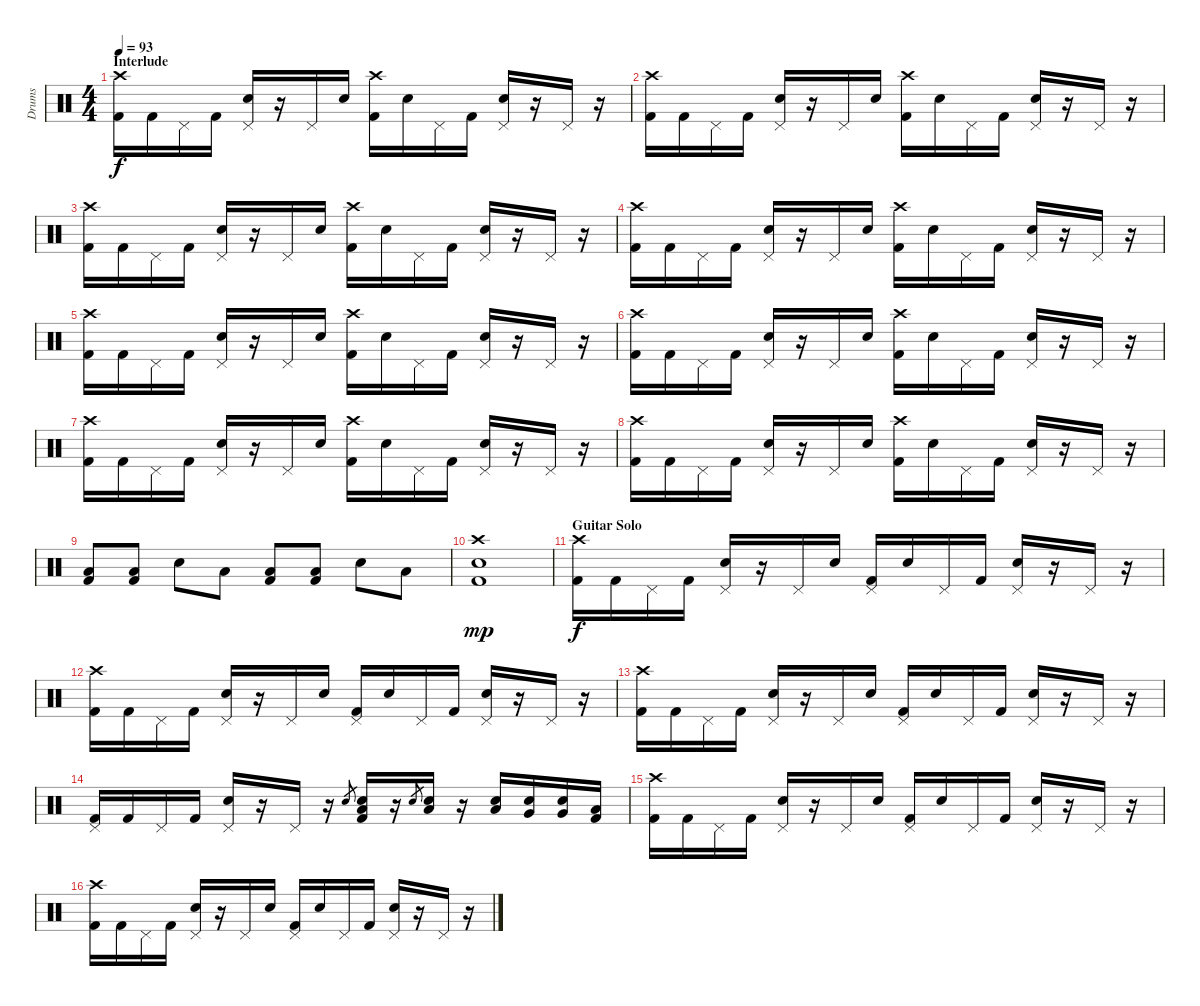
\track ("Drums" "Drums") {instrument percussion}
\staff {score}
\articulation defaults
\ts (4 4)
\section ("" "Interlude")
\tempo 93
\clef neutral
\ks c
("Crash high (hit)" "Kick (hit) 2").16{dy f} "Kick (hit) 2".16 "Pedal Hi-Hat (hit)".16 "Kick (hit) 2".16 ("Pedal Hi-Hat (hit)" "Electric Snare (hit)").16 r.16 "Pedal Hi-Hat (hit)".16 "Electric Snare (hit)".16 ("Crash high (hit)" "Kick (hit) 2").16 "Electric Snare (hit)".16 "Pedal Hi-Hat (hit)".16 "Kick (hit) 2".16 ("Pedal Hi-Hat (hit)" "Electric Snare (hit)").16 r.16 "Pedal Hi-Hat (hit)".16 r.16 |
("Crash high (hit)" "Kick (hit) 2").16 "Kick (hit) 2".16 "Pedal Hi-Hat (hit)".16 "Kick (hit) 2".16 ("Pedal Hi-Hat (hit)" "Electric Snare (hit)").16 r.16 "Pedal Hi-Hat (hit)".16 "Electric Snare (hit)".16 ("Crash high (hit)" "Kick (hit) 2").16 "Electric Snare (hit)".16 "Pedal Hi-Hat (hit)".16 "Kick (hit) 2".16 ("Pedal Hi-Hat (hit)" "Electric Snare (hit)").16 r.16 "Pedal Hi-Hat (hit)".16 r.16 |
("Crash high (hit)" "Kick (hit) 2").16 "Kick (hit) 2".16 "Pedal Hi-Hat (hit)".16 "Kick (hit) 2".16 ("Pedal Hi-Hat (hit)" "Electric Snare (hit)").16 r.16 "Pedal Hi-Hat (hit)".16 "Electric Snare (hit)".16 ("Crash high (hit)" "Kick (hit) 2").16 "Electric Snare (hit)".16 "Pedal Hi-Hat (hit)".16 "Kick (hit) 2".16 ("Pedal Hi-Hat (hit)" "Electric Snare (hit)").16 r.16 "Pedal Hi-Hat (hit)".16 r.16 |
("Crash high (hit)" "Kick (hit) 2").16 "Kick (hit) 2".16 "Pedal Hi-Hat (hit)".16 "Kick (hit) 2".16 ("Pedal Hi-Hat (hit)" "Electric Snare (hit)").16 r.16 "Pedal Hi-Hat (hit)".16 "Electric Snare (hit)".16 ("Crash high (hit)" "Kick (hit) 2").16 "Electric Snare (hit)".16 "Pedal Hi-Hat (hit)".16 "Kick (hit) 2".16 ("Pedal Hi-Hat (hit)" "Electric Snare (hit)").16 r.16 "Pedal Hi-Hat (hit)".16 r.16 |
("Crash high (hit)" "Kick (hit) 2").16 "Kick (hit) 2".16 "Pedal Hi-Hat (hit)".16 "Kick (hit) 2".16 ("Pedal Hi-Hat (hit)" "Electric Snare (hit)").16 r.16 "Pedal Hi-Hat (hit)".16 "Electric Snare (hit)".16 ("Crash high (hit)" "Kick (hit) 2").16 "Electric Snare (hit)".16 "Pedal Hi-Hat (hit)".16 "Kick (hit) 2".16 ("Pedal Hi-Hat (hit)" "Electric Snare (hit)").16 r.16 "Pedal Hi-Hat (hit)".16 r.16 |
("Crash high (hit)" "Kick (hit) 2").16 "Kick (hit) 2".16 "Pedal Hi-Hat (hit)".16 "Kick (hit) 2".16 ("Pedal Hi-Hat (hit)" "Electric Snare (hit)").16 r.16 "Pedal Hi-Hat (hit)".16 "Electric Snare (hit)".16 ("Crash high (hit)" "Kick (hit) 2").16 "Electric Snare (hit)".16 "Pedal Hi-Hat (hit)".16 "Kick (hit) 2".16 ("Pedal Hi-Hat (hit)" "Electric Snare (hit)").16 r.16 "Pedal Hi-Hat (hit)".16 r.16 |
("Crash high (hit)" "Kick (hit) 2").16 "Kick (hit) 2".16 "Pedal Hi-Hat (hit)".16 "Kick (hit) 2".16 ("Pedal Hi-Hat (hit)" "Electric Snare (hit)").16 r.16 "Pedal Hi-Hat (hit)".16 "Electric Snare (hit)".16 ("Crash high (hit)" "Kick (hit) 2").16 "Electric Snare (hit)".16 "Pedal Hi-Hat (hit)".16 "Kick (hit) 2".16 ("Pedal Hi-Hat (hit)" "Electric Snare (hit)").16 r.16 "Pedal Hi-Hat (hit)".16 r.16 |
("Crash high (hit)" "Kick (hit) 2").16 "Kick (hit) 2".16 "Pedal Hi-Hat (hit)".16 "Kick (hit) 2".16 ("Pedal Hi-Hat (hit)" "Electric Snare (hit)").16 r.16 "Pedal Hi-Hat (hit)".16 "Electric Snare (hit)".16 ("Crash high (hit)" "Kick (hit) 2").16 "Electric Snare (hit)".16 "Pedal Hi-Hat (hit)".16 "Kick (hit) 2".16 ("Pedal Hi-Hat (hit)" "Electric Snare (hit)").16 r.16 "Pedal Hi-Hat (hit)".16 r.16 |
("Low Tom (hit)" "Kick (hit) 2").8 ("Low Tom (hit)" "Kick (hit) 2").8 "Electric Snare (hit)".8 "Low Tom (hit)".8 ("Low Tom (hit)" "Kick (hit) 2").8 ("Low Tom (hit)" "Kick (hit) 2").8 "Electric Snare (hit)".8 "Low Tom (hit)".8 |
("Crash high (hit)" "Electric Snare (hit)" "Kick (hit) 2").1{dy mp} |
\section ("" "Guitar Solo")
("Crash high (hit)" "Kick (hit) 2").16{dy f} "Kick (hit) 2".16 "Pedal Hi-Hat (hit)".16 "Kick (hit) 2".16 ("Pedal Hi-Hat (hit)" "Electric Snare (hit)").16 r.16 "Pedal Hi-Hat (hit)".16 "Electric Snare (hit)".16 ("Pedal Hi-Hat (hit)" "Kick (hit) 2").16 "Electric Snare (hit)".16 "Pedal Hi-Hat (hit)".16 "Kick (hit) 2".16 ("Pedal Hi-Hat (hit)" "Electric Snare (hit)").16 r.16 "Pedal Hi-Hat (hit)".16 r.16 |
("Crash high (hit)" "Kick (hit) 2").16 "Kick (hit) 2".16 "Pedal Hi-Hat (hit)".16 "Kick (hit) 2".16 ("Pedal Hi-Hat (hit)" "Electric Snare (hit)").16 r.16 "Pedal Hi-Hat (hit)".16 "Electric Snare (hit)".16 ("Pedal Hi-Hat (hit)" "Kick (hit) 2").16 "Electric Snare (hit)".16 "Pedal Hi-Hat (hit)".16 "Kick (hit) 2".16 ("Pedal Hi-Hat (hit)" "Electric Snare (hit)").16 r.16 "Pedal Hi-Hat (hit)".16 r.16 |
("Crash high (hit)" "Kick (hit) 2").16 "Kick (hit) 2".16 "Pedal Hi-Hat (hit)".16 "Kick (hit) 2".16 ("Pedal Hi-Hat (hit)" "Electric Snare (hit)").16 r.16 "Pedal Hi-Hat (hit)".16 "Electric Snare (hit)".16 ("Pedal Hi-Hat (hit)" "Kick (hit) 2").16 "Electric Snare (hit)".16 "Pedal Hi-Hat (hit)".16 "Kick (hit) 2".16 ("Pedal Hi-Hat (hit)" "Electric Snare (hit)").16 r.16 "Pedal Hi-Hat (hit)".16 r.16 |
("Pedal Hi-Hat (hit)" "Kick (hit) 2").16 "Kick (hit) 2".16 "Pedal Hi-Hat (hit)".16 "Kick (hit) 2".16 ("Pedal Hi-Hat (hit)" "Electric Snare (hit)").16 r.16 "Pedal Hi-Hat (hit)".16 r.16 "Electric Snare (hit)".8{gr} ("Electric Snare (hit)" "Low Tom (hit)" "Kick (hit) 2").16 r.16 "Electric Snare (hit)".8{gr} ("Electric Snare (hit)" "Low Tom (hit)").16 r.16 ("Electric Snare (hit)" "Low Tom (hit)").16 ("Electric Snare (hit)" "Very Low Tom (hit)").16 ("Electric Snare (hit)" "Very Low Tom (hit)").16 ("Low Floor Tom (hit)" "Kick (hit) 2").16 |
("Crash high (hit)" "Kick (hit) 2").16 "Kick (hit) 2".16 "Pedal Hi-Hat (hit)".16 "Kick (hit) 2".16 ("Pedal Hi-Hat (hit)" "Electric Snare (hit)").16 r.16 "Pedal Hi-Hat (hit)".16 "Electric Snare (hit)".16 ("Pedal Hi-Hat (hit)" "Kick (hit) 2").16 "Electric Snare (hit)".16 "Pedal Hi-Hat (hit)".16 "Kick (hit) 2".16 ("Pedal Hi-Hat (hit)" "Electric Snare (hit)").16 r.16 "Pedal Hi-Hat (hit)".16 r.16 |
("Crash high (hit)" "Kick (hit) 2").16 "Kick (hit) 2".16 "Pedal Hi-Hat (hit)".16 "Kick (hit) 2".16 ("Pedal Hi-Hat (hit)" "Electric Snare (hit)").16 r.16 "Pedal Hi-Hat (hit)".16 "Electric Snare (hit)".16 ("Pedal Hi-Hat (hit)" "Kick (hit) 2").16 "Electric Snare (hit)".16 "Pedal Hi-Hat (hit)".16 "Kick (hit) 2".16 ("Pedal Hi-Hat (hit)" "Electric Snare (hit)").16 r.16 "Pedal Hi-Hat (hit)".16 r.16
